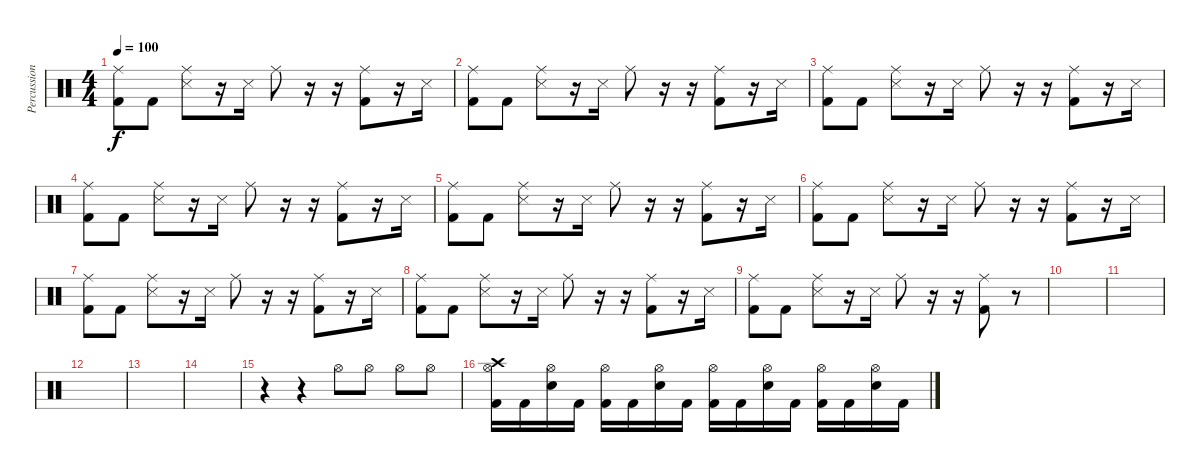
\track ("Percussion" "Percussion") {instrument percussion}
\staff {score}
\articulation defaults
\ts (4 4)
\tempo 100
\clef neutral
\ks c
("Ride (middle)" "Kick (hit) 2").8{dy f} "Kick (hit) 2".8 ("Ride (middle)" "Snare (side stick) 3").8 r.16 "Snare (side stick) 3".16 "Ride (middle)".8 r.16 r.16 ("Ride (middle)" "Kick (hit) 2").8 r.16 "Snare (side stick) 3".16 |
("Ride (middle)" "Kick (hit) 2").8 "Kick (hit) 2".8 ("Ride (middle)" "Snare (side stick) 3").8 r.16 "Snare (side stick) 3".16 "Ride (middle)".8 r.16 r.16 ("Ride (middle)" "Kick (hit) 2").8 r.16 "Snare (side stick) 3".16 |
("Ride (middle)" "Kick (hit) 2").8 "Kick (hit) 2".8 ("Ride (middle)" "Snare (side stick) 3").8 r.16 "Snare (side stick) 3".16 "Ride (middle)".8 r.16 r.16 ("Ride (middle)" "Kick (hit) 2").8 r.16 "Snare (side stick) 3".16 |
("Ride (middle)" "Kick (hit) 2").8 "Kick (hit) 2".8 ("Ride (middle)" "Snare (side stick) 3").8 r.16 "Snare (side stick) 3".16 "Ride (middle)".8 r.16 r.16 ("Ride (middle)" "Kick (hit) 2").8 r.16 "Snare (side stick) 3".16 |
("Ride (middle)" "Kick (hit) 2").8 "Kick (hit) 2".8 ("Ride (middle)" "Snare (side stick) 3").8 r.16 "Snare (side stick) 3".16 "Ride (middle)".8 r.16 r.16 ("Ride (middle)" "Kick (hit) 2").8 r.16 "Snare (side stick) 3".16 |
("Ride (middle)" "Kick (hit) 2").8 "Kick (hit) 2".8 ("Ride (middle)" "Snare (side stick) 3").8 r.16 "Snare (side stick) 3".16 "Ride (middle)".8 r.16 r.16 ("Ride (middle)" "Kick (hit) 2").8 r.16 "Snare (side stick) 3".16 |
("Ride (middle)" "Kick (hit) 2").8 "Kick (hit) 2".8 ("Ride (middle)" "Snare (side stick) 3").8 r.16 "Snare (side stick) 3".16 "Ride (middle)".8 r.16 r.16 ("Ride (middle)" "Kick (hit) 2").8 r.16 "Snare (side stick) 3".16 |
("Ride (middle)" "Kick (hit) 2").8 "Kick (hit) 2".8 ("Ride (middle)" "Snare (side stick) 3").8 r.16 "Snare (side stick) 3".16 "Ride (middle)".8 r.16 r.16 ("Ride (middle)" "Kick (hit) 2").8 r.16 "Snare (side stick) 3".16 |
("Ride (middle)" "Kick (hit) 2").8 "Kick (hit) 2".8 ("Ride (middle)" "Snare (side stick) 3").8 r.16 "Snare (side stick) 3".16 "Ride (middle)".8 r.16 r.16 ("Ride (middle)" "Kick (hit) 2").8 r.8 |
|
|
|
|
|
r.4 r.4 "Hi-Hat (open)".8 "Hi-Hat (open)".8 "Hi-Hat (open)".8 "Hi-Hat (open)".8 |
("Hi-Hat (open)" "Crash high (hit)" "Kick (hit) 2").16 "Kick (hit) 2".16 ("Hi-Hat (open)" "Snare (hit) 2").16 "Kick (hit) 2".16 ("Hi-Hat (open)" "Kick (hit) 2").16 "Kick (hit) 2".16 ("Hi-Hat (open)" "Snare (hit) 2").16 "Kick (hit) 2".16 ("Hi-Hat (open)" "Kick (hit) 2").16 "Kick (hit) 2".16 ("Hi-Hat (open)" "Snare (hit) 2").16 "Kick (hit) 2".16 ("Hi-Hat (open)" "Kick (hit) 2").16 "Kick (hit) 2".16 ("Hi-Hat (open)" "Snare (hit) 2").16 "Kick (hit) 2".16
